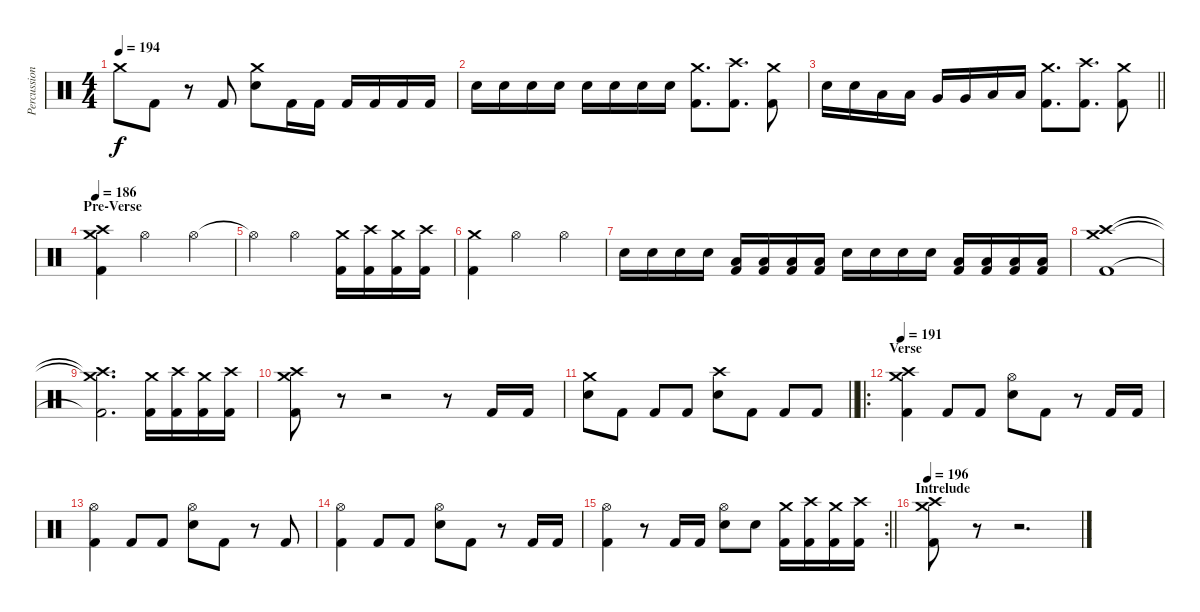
\track ("Percussion" "Percussion") {instrument percussion}
\staff {score}
\articulation defaults
\ts (4 4)
\tempo 194
\clef neutral
\ks c "Crash medium (hit)".8{dy f} "Kick (hit) 2".8
r.8 "Kick (hit) 2".8 ("Crash medium (hit)" "Electric Snare (hit)").8 "Kick (hit) 2".16 "Kick (hit) 2".16 "Kick (hit) 2".16 "Kick (hit) 2".16 "Kick (hit) 2".16 "Kick (hit) 2".16 |
"Electric Snare (hit)".16 "Electric Snare (hit)".16 "Electric Snare (hit)".16 "Electric Snare (hit)".16 "Electric Snare (hit)".16 "Electric Snare (hit)".16 "Electric Snare (hit)".16 "Electric Snare (hit)".16 ("Crash medium (hit)" "Kick (hit) 2").8{d} ("Crash high (hit)" "Kick (hit) 2").8{d} ("Crash medium (hit)" "Kick (hit) 2").8 |
\barLineRight lightlight "Electric Snare (hit)".16 "Electric Snare (hit)".16 "Low Tom (hit)".16 "Low Tom (hit)".16 "Very Low Tom (hit)".16 "Very Low Tom (hit)".16 "Low Floor Tom (hit)".16 "Low Floor Tom (hit)".16
("Crash medium (hit)" "Kick (hit) 2").8{d} ("Crash high (hit)" "Kick (hit) 2").8{d} ("Crash medium (hit)" "Kick (hit) 2").8 |
\section ("" "Pre-Verse")
\tempo 186
("Crash medium (hit)" "Crash high (hit)" "Kick (hit) 2").4 "Hi-Hat (open)".2 "Hi-Hat (open)".4 |
"Hi-Hat (open)"{t}.4 "Hi-Hat (open)".2 ("Crash medium (hit)" "Kick (hit) 2").16 ("Crash high (hit)" "Kick (hit) 2").16 ("Crash medium (hit)" "Kick (hit) 2").16 ("Crash high (hit)" "Kick (hit) 2").16 |
("Crash medium (hit)" "Kick (hit) 2").4 "Hi-Hat (open)".2 "Hi-Hat (open)".4 |
"Electric Snare (hit)".16 "Electric Snare (hit)".16 "Electric Snare (hit)".16 "Electric Snare (hit)".16 ("Low Tom (hit)" "Kick (hit) 2").16 ("Low Tom (hit)" "Kick (hit) 2").16 ("Low Tom (hit)" "Kick (hit) 2").16 ("Low Tom (hit)" "Kick (hit) 2").16 "Electric Snare (hit)".16 "Electric Snare (hit)".16 "Electric Snare (hit)".16 "Electric Snare (hit)".16 ("Low Tom (hit)" "Kick (hit) 2").16 ("Low Tom (hit)" "Kick (hit) 2").16 ("Low Tom (hit)" "Kick (hit) 2").16 ("Low Tom (hit)" "Kick (hit) 2").16 |
("Crash medium (hit)" "Crash high (hit)" "Kick (hit) 2").1 |
("Crash medium (hit)"{t} "Crash high (hit)"{t} "Kick (hit) 2"{t}).2{d} ("Crash medium (hit)" "Kick (hit) 2").16 ("Crash high (hit)" "Kick (hit) 2").16 ("Crash medium (hit)" "Kick (hit) 2").16 ("Crash high (hit)" "Kick (hit) 2").16 |
("Crash medium (hit)" "Crash high (hit)" "Kick (hit) 2").8 r.8{volume 0} r.2 r.8 "Kick (hit) 2".16{volume 14} "Kick (hit) 2".16 |
\barLineRight lightlight
("Crash medium (hit)" "Electric Snare (hit)").8 "Kick (hit) 2".8 "Kick (hit) 2".8 "Kick (hit) 2".8 ("Crash high (hit)" "Electric Snare (hit)").8 "Kick (hit) 2".8 "Kick (hit) 2".8 "Kick (hit) 2".8 |
\ro
\section ("" "Verse")
\tempo 191
("Crash medium (hit)" "Crash high (hit)" "Kick (hit) 2").4 "Kick (hit) 2".8 "Kick (hit) 2".8 ("Hi-Hat (open)" "Electric Snare (hit)").8 "Kick (hit) 2".8 r.8 "Kick (hit) 2".16 "Kick (hit) 2".16 |
("Hi-Hat (open)" "Kick (hit) 2").4 "Kick (hit) 2".8 "Kick (hit) 2".8 ("Hi-Hat (open)" "Electric Snare (hit)").8 "Kick (hit) 2".8 r.8 "Kick (hit) 2".8 |
("Hi-Hat (open)" "Kick (hit) 2").4 "Kick (hit) 2".8 "Kick (hit) 2".8 ("Hi-Hat (open)" "Electric Snare (hit)").8 "Kick (hit) 2".8 r.8 "Kick (hit) 2".16 "Kick (hit) 2".16 |
\rc 2
\barLineRight lightlight
("Hi-Hat (open)" "Kick (hit) 2").4 r.8 "Kick (hit) 2".16 "Kick (hit) 2".16 ("Hi-Hat (open)" "Electric Snare (hit)").8 "Electric Snare (hit)".8 ("Crash medium (hit)" "Kick (hit) 2").16 ("Crash high (hit)" "Kick (hit) 2").16 ("Crash medium (hit)" "Kick (hit) 2").16 ("Crash high (hit)" "Kick (hit) 2").16 |
\section ("" "Intrelude")
\tempo 196
("Crash medium (hit)" "Crash high (hit)" "Kick (hit) 2").8 r.8{volume 0} r.2{d}
